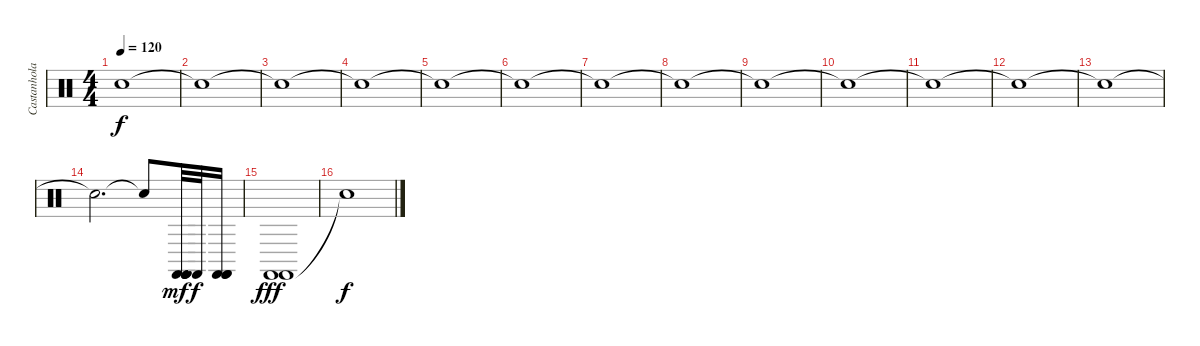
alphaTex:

\track ("Castanholas etc. ïåğêóññèÿ" "Castanhola") {instrument percussion}
\staff {score}
\articulation defaults
\ts (4 4)
\tempo 120
\clef neutral
\ks c "Snare (hit)"{t}.1{dy f}
|
"Snare (hit)"{t}.1 |
"Snare (hit)"{t}.1 |
"Snare (hit)"{t}.1 |
"Snare (hit)"{t}.1 |
"Snare (hit)"{t}.1 |
"Snare (hit)"{t}.1 |
"Snare (hit)"{t}.1 |
"Snare (hit)"{t}.1 |
"Snare (hit)"{t}.1 |
"Snare (hit)"{t}.1 |
"Snare (hit)"{t}.1 |
"Snare (hit)"{t}.1 |
"Snare (hit)"{t}.2{d} "Snare (hit)"{t}.8 ("Castanets (hit)" "Castanets (hit)" "Castanets (hit)" "Castanets (hit)").32{dy mf} "Castanets (hit)".32{dy f} ("Castanets (hit)" "Castanets (hit)" "Castanets (hit)").16 |
("Castanets (hit)" "Castanets (hit)").1{dy fff} |
"Snare (hit)"{t}.1{dy f}
